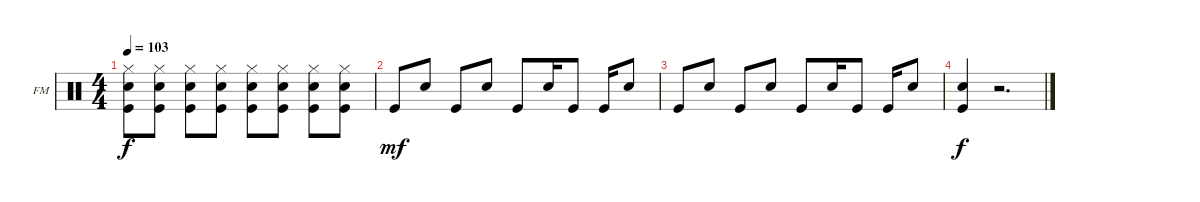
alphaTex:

\defaultSystemsLayout 4
\bracketExtendMode groupsimilarinstruments
\firstSystemTrackNameOrientation horizontal
\otherSystemsTrackNameOrientation horizontal
\track ("Fabrizio Moretti" "FM") {instrument percussion}
\staff {score}
\articulation defaults
\ts (4 4)
\tempo 103
\clef neutral
\ks c
("Kick (hit)" "Snare (hit) 2" "Hi-Hat (closed)").8{dy f} ("Snare (hit) 2" "Kick (hit)" "Hi-Hat (closed)").8 ("Snare (hit) 2" "Kick (hit)" "Hi-Hat (closed)").8 ("Snare (hit) 2" "Kick (hit)" "Hi-Hat (closed)").8 ("Snare (hit) 2" "Kick (hit)" "Hi-Hat (closed)").8 ("Snare (hit) 2" "Kick (hit)" "Hi-Hat (closed)").8 ("Snare (hit) 2" "Kick (hit)" "Hi-Hat (closed)").8 ("Snare (hit) 2" "Kick (hit)" "Hi-Hat (closed)").8 |
"Kick (hit)".8{dy mf} "Snare (hit) 2".8 "Kick (hit)".8 "Snare (hit) 2".8 "Kick (hit)".8 "Snare (hit) 2".16 "Kick (hit)".8 "Kick (hit)".16 "Snare (hit) 2".8 |
"Kick (hit)".8 "Snare (hit) 2".8 "Kick (hit)".8 "Snare (hit) 2".8 "Kick (hit)".8 "Snare (hit) 2".16 "Kick (hit)".8 "Kick (hit)".16 "Snare (hit) 2".8 |
("Kick (hit)" "Snare (hit) 2").4{dy f} r.2{d}
